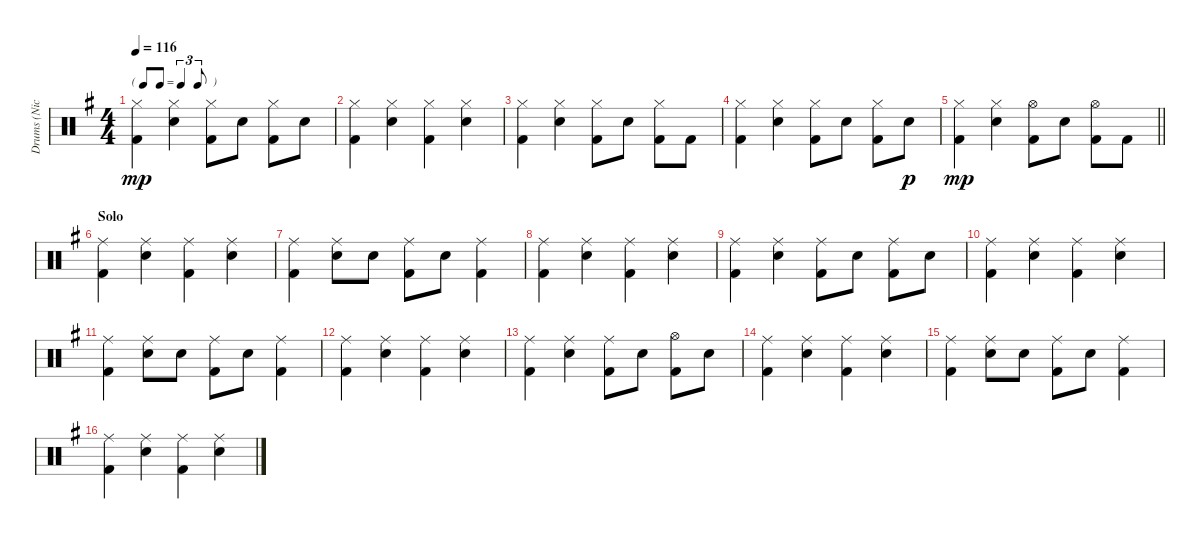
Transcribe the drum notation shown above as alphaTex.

\track ("Drums (Nick Mason)" "Drums (Nic") {instrument percussion}
\staff {score}
\articulation defaults
\ts (4 4)
\tf triplet8th
\tempo 116
\clef neutral
\ks g
("Hi-Hat (closed)" "Kick (hit) 2").4{dy mp} ("Hi-Hat (closed)" "Snare (hit) 2").4 ("Hi-Hat (closed)" "Kick (hit) 2").8 "Snare (hit) 2".8 ("Hi-Hat (closed)" "Kick (hit) 2").8 "Snare (hit) 2".8 |
("Hi-Hat (closed)" "Kick (hit) 2").4 ("Hi-Hat (closed)" "Snare (hit) 2").4 ("Hi-Hat (closed)" "Kick (hit) 2").4 ("Hi-Hat (closed)" "Snare (hit) 2").4 |
("Hi-Hat (closed)" "Kick (hit) 2").4 ("Hi-Hat (closed)" "Snare (hit) 2").4 ("Hi-Hat (closed)" "Kick (hit) 2").8 "Snare (hit) 2".8 ("Hi-Hat (closed)" "Kick (hit) 2").8 "Kick (hit) 2".8 |
("Hi-Hat (closed)" "Kick (hit) 2").4 ("Hi-Hat (closed)" "Snare (hit) 2").4 ("Hi-Hat (closed)" "Kick (hit) 2").8 "Snare (hit) 2".8 ("Hi-Hat (closed)" "Kick (hit) 2").8 "Snare (hit) 2".8{dy p} |
\barLineRight lightlight
("Hi-Hat (closed)" "Kick (hit) 2").4{dy mp} ("Hi-Hat (closed)" "Snare (hit) 2").4 ("Hi-Hat (open)" "Kick (hit) 2").8 "Snare (hit) 2".8 ("Hi-Hat (open)" "Kick (hit) 2").8 "Kick (hit) 2".8 |
\section ("" "Solo")
("Ride (middle)" "Kick (hit) 2").4 ("Ride (middle)" "Snare (hit) 2").4 ("Ride (middle)" "Kick (hit) 2").4 ("Ride (middle)" "Snare (hit) 2").4 |
("Ride (middle)" "Kick (hit) 2").4 ("Ride (middle)" "Snare (hit) 2").8 "Snare (hit) 2".8 ("Ride (middle)" "Kick (hit) 2").8 "Snare (hit) 2".8 ("Ride (middle)" "Kick (hit) 2").4 |
("Ride (middle)" "Kick (hit) 2").4 ("Ride (middle)" "Snare (hit) 2").4 ("Ride (middle)" "Kick (hit) 2").4 ("Ride (middle)" "Snare (hit) 2").4 |
("Ride (middle)" "Kick (hit) 2").4 ("Ride (middle)" "Snare (hit) 2").4 ("Ride (middle)" "Kick (hit) 2").8 "Snare (hit) 2".8 ("Ride (middle)" "Kick (hit) 2").8 "Snare (hit) 2".8 |
("Ride (middle)" "Kick (hit) 2").4 ("Ride (middle)" "Snare (hit) 2").4 ("Ride (middle)" "Kick (hit) 2").4 ("Ride (middle)" "Snare (hit) 2").4 |
("Ride (middle)" "Kick (hit) 2").4 ("Ride (middle)" "Snare (hit) 2").8 "Snare (hit) 2".8 ("Ride (middle)" "Kick (hit) 2").8 "Snare (hit) 2".8 ("Ride (middle)" "Kick (hit) 2").4 |
("Ride (middle)" "Kick (hit) 2").4 ("Ride (middle)" "Snare (hit) 2").4 ("Ride (middle)" "Kick (hit) 2").4 ("Ride (middle)" "Snare (hit) 2").4 |
("Ride (middle)" "Kick (hit) 2").4 ("Ride (middle)" "Snare (hit) 2").4 ("Ride (middle)" "Kick (hit) 2").8 "Snare (hit) 2".8 ("Hi-Hat (open)" "Kick (hit) 2").8 "Snare (hit) 2".8 |
("Ride (middle)" "Kick (hit) 2").4 ("Ride (middle)" "Snare (hit) 2").4 ("Ride (middle)" "Kick (hit) 2").4 ("Ride (middle)" "Snare (hit) 2").4 |
("Ride (middle)" "Kick (hit) 2").4 ("Ride (middle)" "Snare (hit) 2").8 "Snare (hit) 2".8 ("Ride (middle)" "Kick (hit) 2").8 "Snare (hit) 2".8 ("Ride (middle)" "Kick (hit) 2").4 |
("Ride (middle)" "Kick (hit) 2").4 ("Ride (middle)" "Snare (hit) 2").4 ("Ride (middle)" "Kick (hit) 2").4 ("Ride (middle)" "Snare (hit) 2").4
